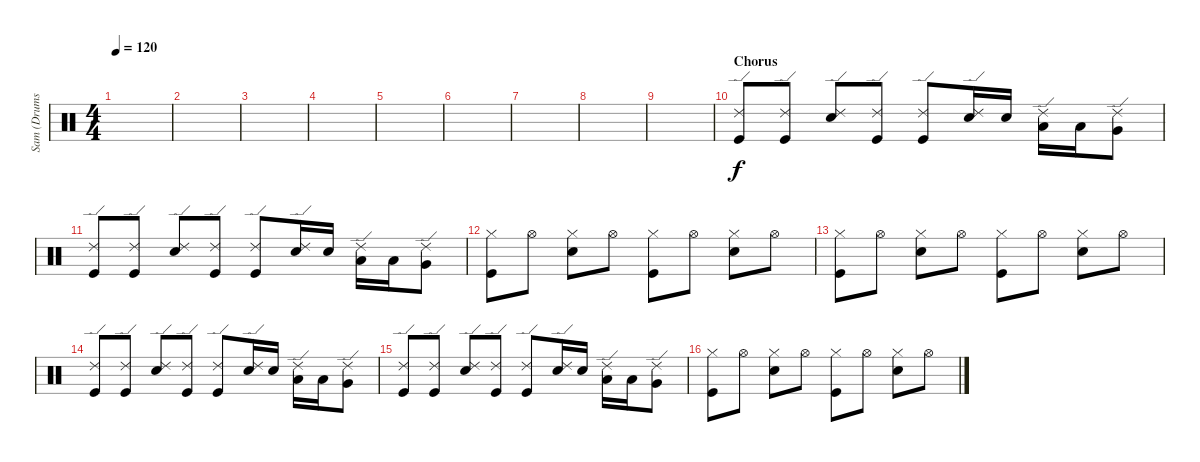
\track ("Sam (Drums)" "Sam (Drums") {instrument percussion}
\staff {score}
\articulation defaults
\ts (4 4)
\tempo 120
\clef neutral
\ks c
|
|
|
|
|
|
|
|
|
\section ("" "Chorus")
("Ride (edge) 2" "Kick (hit)").8 ("Ride (edge) 2" "Kick (hit)").8 ("Ride (edge) 2" "Snare (hit) 2").8 ("Ride (edge) 2" "Kick (hit)").8 ("Ride (edge) 2" "Kick (hit)").8 ("Ride (edge) 2" "Snare (hit) 2").16 "Snare (hit) 2".16 ("Ride (edge) 2" "Low Tom (hit)").16 "Low Tom (hit)".16 ("Ride (edge) 2" "Very Low Tom (hit)").8 |
("Ride (edge) 2" "Kick (hit)").8 ("Ride (edge) 2" "Kick (hit)").8 ("Ride (edge) 2" "Snare (hit) 2").8 ("Ride (edge) 2" "Kick (hit)").8 ("Ride (edge) 2" "Kick (hit)").8 ("Ride (edge) 2" "Snare (hit) 2").16 "Snare (hit) 2".16 ("Ride (edge) 2" "Low Tom (hit)").16 "Low Tom (hit)".16 ("Ride (edge) 2" "Very Low Tom (hit)").8 |
("Hi-Hat (closed)" "Kick (hit)").8 "Hi-Hat (open)".8 ("Hi-Hat (closed)" "Snare (hit) 2").8 "Hi-Hat (open)".8 ("Hi-Hat (closed)" "Kick (hit)").8 "Hi-Hat (open)".8 ("Hi-Hat (closed)" "Snare (hit) 2").8 "Hi-Hat (open)".8 |
("Hi-Hat (closed)" "Kick (hit)").8 "Hi-Hat (open)".8 ("Hi-Hat (closed)" "Snare (hit) 2").8 "Hi-Hat (open)".8 ("Hi-Hat (closed)" "Kick (hit)").8 "Hi-Hat (open)".8 ("Hi-Hat (closed)" "Snare (hit) 2").8 "Hi-Hat (open)".8 |
("Ride (edge) 2" "Kick (hit)").8 ("Ride (edge) 2" "Kick (hit)").8 ("Ride (edge) 2" "Snare (hit) 2").8 ("Ride (edge) 2" "Kick (hit)").8 ("Ride (edge) 2" "Kick (hit)").8 ("Ride (edge) 2" "Snare (hit) 2").16 "Snare (hit) 2".16 ("Ride (edge) 2" "Low Tom (hit)").16 "Low Tom (hit)".16 ("Ride (edge) 2" "Very Low Tom (hit)").8 |
("Ride (edge) 2" "Kick (hit)").8 ("Ride (edge) 2" "Kick (hit)").8 ("Ride (edge) 2" "Snare (hit) 2").8 ("Ride (edge) 2" "Kick (hit)").8 ("Ride (edge) 2" "Kick (hit)").8 ("Ride (edge) 2" "Snare (hit) 2").16 "Snare (hit) 2".16 ("Ride (edge) 2" "Low Tom (hit)").16 "Low Tom (hit)".16 ("Ride (edge) 2" "Very Low Tom (hit)").8 |
("Hi-Hat (closed)" "Kick (hit)").8 "Hi-Hat (open)".8 ("Hi-Hat (closed)" "Snare (hit) 2").8 "Hi-Hat (open)".8 ("Hi-Hat (closed)" "Kick (hit)").8 "Hi-Hat (open)".8 ("Hi-Hat (closed)" "Snare (hit) 2").8 "Hi-Hat (open)".8
